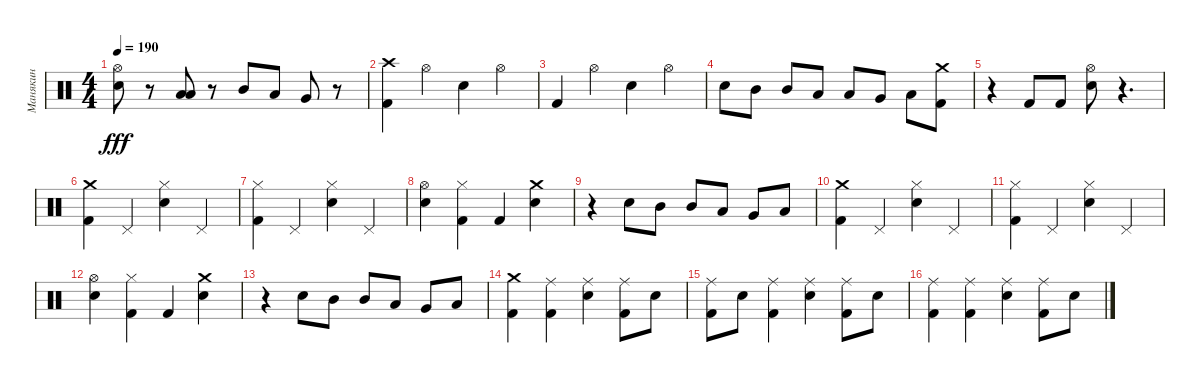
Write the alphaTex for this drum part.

\track ("Манякин" "Манякин") {instrument percussion}
\staff {score}
\articulation defaults
\ts (4 4)
\tempo 190
\clef neutral
\ks c
("Hi-Hat (open)" "Snare (hit) 2").8{dy fff} r.8 ("Low Tom (hit)" "Low Floor Tom (hit)").8 r.8 "Mid Tom (hit)".8 "Low Tom (hit)".8 "Very Low Tom (hit)".8 r.8 |
("Kick (hit) 2" "Crash high (hit)").4 "Hi-Hat (open)".4 "Snare (hit) 2".4 "Hi-Hat (open)".4 |
"Kick (hit) 2".4 "Hi-Hat (open)".4 "Snare (hit) 2".4 "Hi-Hat (open)".4 |
"Snare (hit) 2".8 "Mid Tom (hit)".8 "Mid Tom (hit)".8 "Low Tom (hit)".8 "Low Tom (hit)".8 "Very Low Tom (hit)".8 "Low Floor Tom (hit)".8 ("Crash medium (hit)" "Kick (hit) 2").8 |
r.4 "Kick (hit) 2".8 "Kick (hit) 2".8 ("Hi-Hat (open)" "Snare (hit) 2").8 r.4{d} |
("Kick (hit) 2" "Crash medium (hit)").4 "Pedal Hi-Hat (hit)".4 ("Hi-Hat (closed)" "Snare (hit) 2").4 "Pedal Hi-Hat (hit)".4 |
("Hi-Hat (closed)" "Kick (hit) 2").4 "Pedal Hi-Hat (hit)".4 ("Snare (hit) 2" "Hi-Hat (closed)").4 "Pedal Hi-Hat (hit)".4 |
("Hi-Hat (open)" "Snare (hit) 2").4 ("Hi-Hat (closed)" "Kick (hit) 2").4 "Kick (hit) 2".4 ("Snare (hit) 2" "Crash medium (hit)").4 |
r.4 "Snare (hit) 2".8 "Mid Tom (hit)".8 "Mid Tom (hit)".8 "Low Tom (hit)".8 "Very Low Tom (hit)".8 "Low Floor Tom (hit)".8 |
("Kick (hit) 2" "Crash medium (hit)").4 "Pedal Hi-Hat (hit)".4 ("Hi-Hat (closed)" "Snare (hit) 2").4 "Pedal Hi-Hat (hit)".4 |
("Hi-Hat (closed)" "Kick (hit) 2").4 "Pedal Hi-Hat (hit)".4 ("Snare (hit) 2" "Hi-Hat (closed)").4 "Pedal Hi-Hat (hit)".4 |
("Hi-Hat (open)" "Snare (hit) 2").4 ("Hi-Hat (closed)" "Kick (hit) 2").4 "Kick (hit) 2".4 ("Snare (hit) 2" "Crash medium (hit)").4 |
r.4 "Snare (hit) 2".8 "Mid Tom (hit)".8 "Mid Tom (hit)".8 "Low Tom (hit)".8 "Very Low Tom (hit)".8 "Low Floor Tom (hit)".8 |
("Kick (hit) 2" "Crash medium (hit)").4 ("Kick (hit) 2" "Ride (middle)").4 ("Snare (hit) 2" "Ride (middle)").4 ("Kick (hit) 2" "Ride (middle)").8 "Snare (hit) 2".8 |
("Kick (hit) 2" "Ride (middle)").8 "Snare (hit) 2".8 ("Kick (hit) 2" "Ride (middle)").4 ("Snare (hit) 2" "Ride (middle)").4 ("Kick (hit) 2" "Ride (middle)").8 "Snare (hit) 2".8 |
("Kick (hit) 2" "Ride (middle)").4 ("Kick (hit) 2" "Ride (middle)").4 ("Snare (hit) 2" "Ride (middle)").4 ("Kick (hit) 2" "Ride (middle)").8 "Snare (hit) 2".8
